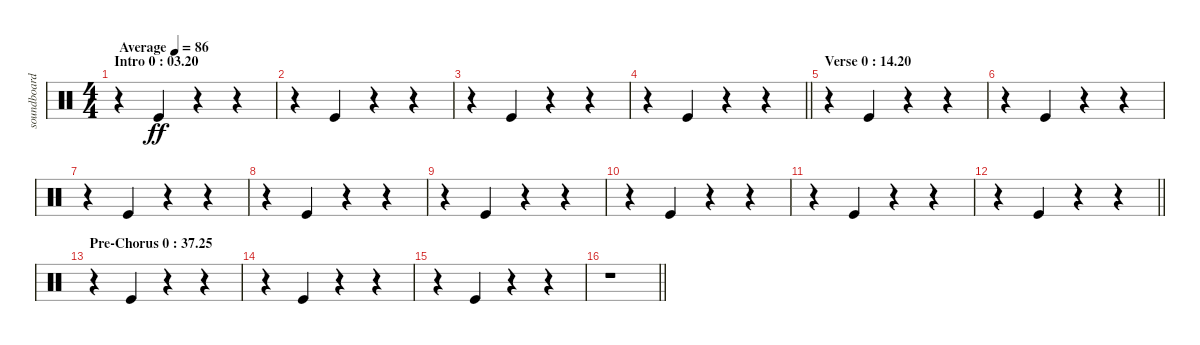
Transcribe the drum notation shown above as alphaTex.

\track ("soundboard" "soundboard") {instrument percussion}
\staff {score}
\articulation defaults
\ts (4 4)
\section ("" "Intro 0 : 03.20")
\tempo (86 "Average")
\clef neutral
\ks c
r.4{dy ff} "Kick (hit)".4 r.4 r.4 |
r.4 "Kick (hit)".4 r.4 r.4 |
r.4 "Kick (hit)".4 r.4 r.4 |
\barLineRight lightlight
r.4 "Kick (hit)".4 r.4 r.4 |
\section ("" "Verse 0 : 14.20")
r.4 "Kick (hit)".4 r.4 r.4 |
r.4 "Kick (hit)".4 r.4 r.4 |
r.4 "Kick (hit)".4 r.4 r.4 |
r.4 "Kick (hit)".4 r.4 r.4 |
r.4 "Kick (hit)".4 r.4 r.4 |
r.4 "Kick (hit)".4 r.4 r.4 |
r.4 "Kick (hit)".4 r.4 r.4 |
\barLineRight lightlight
r.4 "Kick (hit)".4 r.4 r.4 |
\section ("" "Pre-Chorus 0 : 37.25")
\ks aminor
r.4 "Kick (hit)".4 r.4 r.4 |
r.4 "Kick (hit)".4 r.4 r.4 |
r.4 "Kick (hit)".4 r.4 r.4 |
\barLineRight lightlight
r.1
